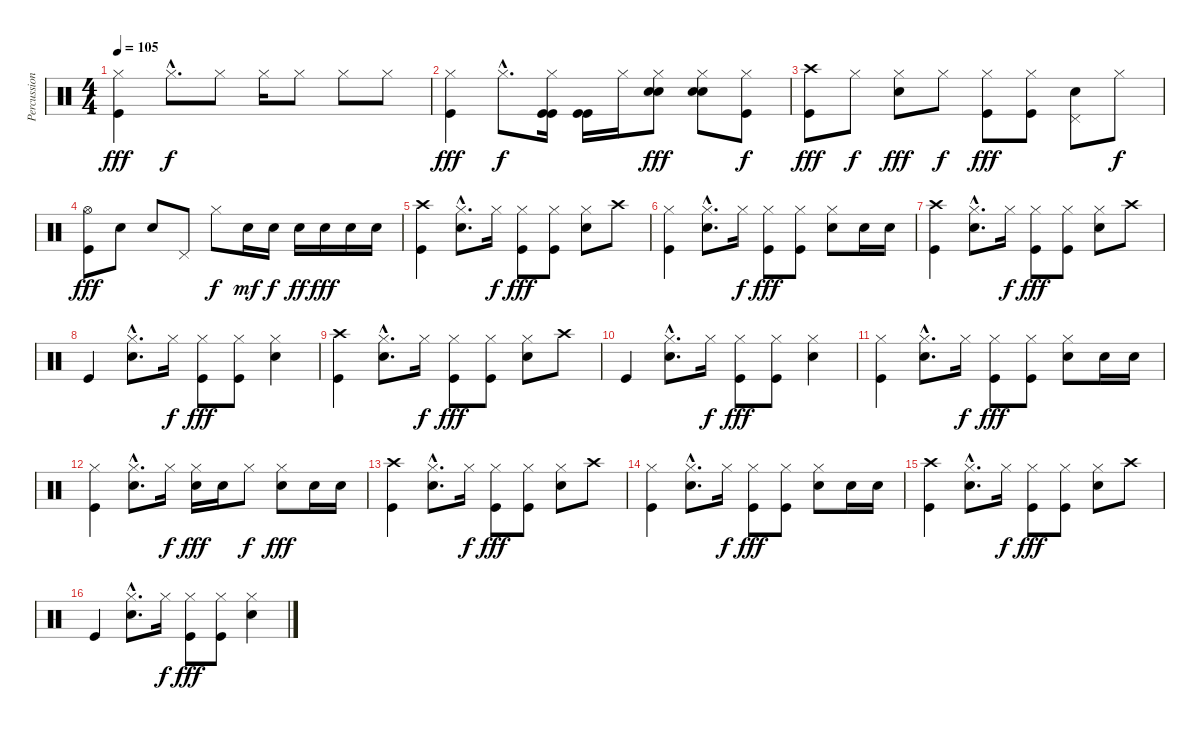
\track ("Percussion" "Percussion") {instrument percussion}
\staff {score}
\articulation defaults
\ts (4 4)
\tempo 105
\clef neutral
\ks c
("Hi-Hat (closed)" "Kick (hit)").4{dy fff} "Hi-Hat (closed)"{hac}.8{d dy f} "Hi-Hat (closed)".8 "Hi-Hat (closed)".16 "Hi-Hat (closed)".8 "Hi-Hat (closed)".8 "Hi-Hat (closed)".8 |
("Hi-Hat (closed)" "Kick (hit)").4{dy fff} "Hi-Hat (closed)"{hac}.8{d dy f} ("Hi-Hat (closed)" "Kick (hit)" "Kick (hit)").16 ("Kick (hit)" "Kick (hit)").16 "Hi-Hat (closed)".16 ("Hi-Hat (closed)" "Electric Snare (hit)" "Electric Snare (hit)").8{dy fff} ("Hi-Hat (closed)" "Electric Snare (hit)" "Electric Snare (hit)").8 ("Hi-Hat (closed)" "Kick (hit)").8{dy f} |
("Crash high (hit)" "Kick (hit)").8{dy fff} "Hi-Hat (closed)".8{dy f} ("Hi-Hat (closed)" "Electric Snare (hit)").8{dy fff} "Hi-Hat (closed)".8{dy f} ("Hi-Hat (closed)" "Kick (hit)").8{dy fff} ("Hi-Hat (closed)" "Kick (hit)").8 ("Pedal Hi-Hat (hit)" "Electric Snare (hit)").8 "Hi-Hat (closed)".8{dy f} |
("Hi-Hat (open)" "Kick (hit)").8{dy fff} "Electric Snare (hit)".8 "Electric Snare (hit)".8 "Pedal Hi-Hat (hit)".8 "Hi-Hat (closed)".8{dy f} "Electric Snare (hit)".16{dy mf} "Electric Snare (hit)".16{dy f} "Electric Snare (hit)".16{dy ff} "Electric Snare (hit)".16{dy fff} "Electric Snare (hit)".16 "Electric Snare (hit)".16 |
("Crash high (hit)" "Kick (hit)").4 ("Hi-Hat (closed)"{hac} "Electric Snare (hit)"{hac}).8{d} "Hi-Hat (closed)".16{dy f} ("Hi-Hat (closed)" "Kick (hit)").8{dy fff} ("Hi-Hat (closed)" "Kick (hit)").8 ("Hi-Hat (closed)" "Electric Snare (hit)").8 "Crash high (hit)".8 |
("Hi-Hat (closed)" "Kick (hit)").4 ("Hi-Hat (closed)"{hac} "Electric Snare (hit)"{hac}).8{d} "Hi-Hat (closed)".16{dy f} ("Hi-Hat (closed)" "Kick (hit)").8{dy fff} ("Hi-Hat (closed)" "Kick (hit)").8 ("Hi-Hat (closed)" "Electric Snare (hit)").8 "Electric Snare (hit)".16 "Electric Snare (hit)".16 |
("Crash high (hit)" "Kick (hit)").4 ("Hi-Hat (closed)"{hac} "Electric Snare (hit)"{hac}).8{d} "Hi-Hat (closed)".16{dy f} ("Hi-Hat (closed)" "Kick (hit)").8{dy fff} ("Hi-Hat (closed)" "Kick (hit)").8 ("Hi-Hat (closed)" "Electric Snare (hit)").8 "Crash high (hit)".8 |
"Kick (hit)".4 ("Hi-Hat (closed)"{hac} "Electric Snare (hit)"{hac}).8{d} "Hi-Hat (closed)".16{dy f} ("Hi-Hat (closed)" "Kick (hit)").8{dy fff} ("Hi-Hat (closed)" "Kick (hit)").8 ("Hi-Hat (closed)" "Electric Snare (hit)").4 |
("Crash high (hit)" "Kick (hit)").4 ("Hi-Hat (closed)"{hac} "Electric Snare (hit)"{hac}).8{d} "Hi-Hat (closed)".16{dy f} ("Hi-Hat (closed)" "Kick (hit)").8{dy fff} ("Hi-Hat (closed)" "Kick (hit)").8 ("Hi-Hat (closed)" "Electric Snare (hit)").8 "Crash high (hit)".8 |
"Kick (hit)".4 ("Hi-Hat (closed)"{hac} "Electric Snare (hit)"{hac}).8{d} "Hi-Hat (closed)".16{dy f} ("Hi-Hat (closed)" "Kick (hit)").8{dy fff} ("Hi-Hat (closed)" "Kick (hit)").8 ("Hi-Hat (closed)" "Electric Snare (hit)").4 |
("Hi-Hat (closed)" "Kick (hit)").4 ("Hi-Hat (closed)"{hac} "Electric Snare (hit)"{hac}).8{d} "Hi-Hat (closed)".16{dy f} ("Hi-Hat (closed)" "Kick (hit)").8{dy fff} ("Hi-Hat (closed)" "Kick (hit)").8 ("Hi-Hat (closed)" "Electric Snare (hit)").8 "Electric Snare (hit)".16 "Electric Snare (hit)".16 |
("Hi-Hat (closed)" "Kick (hit)").4 ("Hi-Hat (closed)"{hac} "Electric Snare (hit)"{hac}).8{d} "Hi-Hat (closed)".16{dy f} ("Hi-Hat (closed)" "Electric Snare (hit)").16{dy fff} "Electric Snare (hit)".16 "Hi-Hat (closed)".8{dy f} ("Hi-Hat (closed)" "Electric Snare (hit)").8{dy fff} "Electric Snare (hit)".16 "Electric Snare (hit)".16 |
("Crash high (hit)" "Kick (hit)").4 ("Hi-Hat (closed)"{hac} "Electric Snare (hit)"{hac}).8{d} "Hi-Hat (closed)".16{dy f} ("Hi-Hat (closed)" "Kick (hit)").8{dy fff} ("Hi-Hat (closed)" "Kick (hit)").8 ("Hi-Hat (closed)" "Electric Snare (hit)").8 "Crash high (hit)".8 |
("Hi-Hat (closed)" "Kick (hit)").4 ("Hi-Hat (closed)"{hac} "Electric Snare (hit)"{hac}).8{d} "Hi-Hat (closed)".16{dy f} ("Hi-Hat (closed)" "Kick (hit)").8{dy fff} ("Hi-Hat (closed)" "Kick (hit)").8 ("Hi-Hat (closed)" "Electric Snare (hit)").8 "Electric Snare (hit)".16 "Electric Snare (hit)".16 |
("Crash high (hit)" "Kick (hit)").4 ("Hi-Hat (closed)"{hac} "Electric Snare (hit)"{hac}).8{d} "Hi-Hat (closed)".16{dy f} ("Hi-Hat (closed)" "Kick (hit)").8{dy fff} ("Hi-Hat (closed)" "Kick (hit)").8 ("Hi-Hat (closed)" "Electric Snare (hit)").8 "Crash high (hit)".8 |
"Kick (hit)".4 ("Hi-Hat (closed)"{hac} "Electric Snare (hit)"{hac}).8{d} "Hi-Hat (closed)".16{dy f} ("Hi-Hat (closed)" "Kick (hit)").8{dy fff} ("Hi-Hat (closed)" "Kick (hit)").8 ("Hi-Hat (closed)" "Electric Snare (hit)").4
